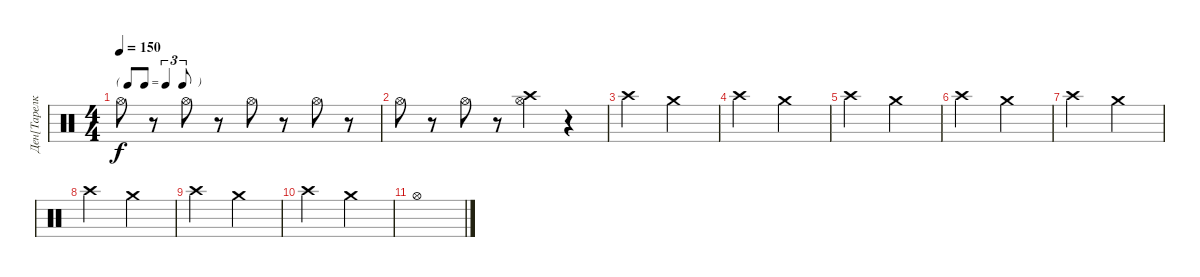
\track ("Ден[Тарелки]" "Ден[Тарелк") {instrument percussion}
\staff {score}
\articulation defaults
\ts (4 4)
\tf triplet8th
\tempo 150
\clef neutral
\ks c "Hi-Hat (open)".8{dy f}
r.8 "Hi-Hat (open)".8 r.8 "Hi-Hat (open)".8 r.8 "Hi-Hat (open)".8 r.8 |
"Hi-Hat (open)".8 r.8 "Hi-Hat (open)".8 r.8 ("Crash high (hit)" "Hi-Hat (open)").4 r.4 |
"Crash high (hit)".2 "Crash medium (hit)".2 |
"Crash high (hit)".2 "Crash medium (hit)".2 |
"Crash high (hit)".2 "Crash medium (hit)".2 |
"Crash high (hit)".2 "Crash medium (hit)".2 |
"Crash high (hit)".2 "Crash medium (hit)".2 |
"Crash high (hit)".2 "Crash medium (hit)".2 |
"Crash high (hit)".2 "Crash medium (hit)".2 |
"Crash high (hit)".2 "Crash medium (hit)".2 |
"Hi-Hat (open)".1
